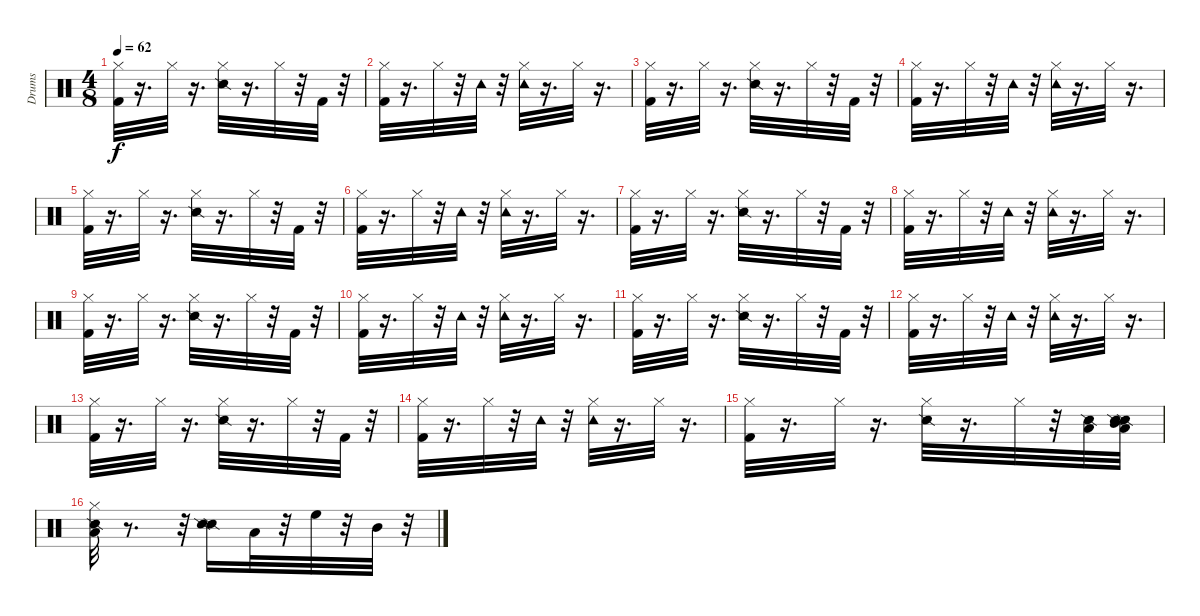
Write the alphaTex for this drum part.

\track ("Drums" "Drums") {instrument percussion}
\staff {score}
\articulation defaults
\ts (4 8)
\tempo 62
\clef neutral
\ks c
("Kick (hit) 2" "Hi-Hat (closed)").32{dy f} r.16{d} "Hi-Hat (closed)".32 r.16{d} ("Snare (side stick) 2" "Hi-Hat (closed)").32 r.16{d} "Hi-Hat (closed)".32 r.32 "Kick (hit) 2".32 r.32 |
("Kick (hit) 2" "Hi-Hat (closed)").32 r.16{d} "Hi-Hat (closed)".32 r.32 "Tambourine (hit)".32 r.32 ("Hi-Hat (closed)" "Tambourine (hit)").32 r.16{d} "Hi-Hat (closed)".32 r.16{d} |
("Kick (hit) 2" "Hi-Hat (closed)").32 r.16{d} "Hi-Hat (closed)".32 r.16{d} ("Snare (side stick) 2" "Hi-Hat (closed)").32 r.16{d} "Hi-Hat (closed)".32 r.32 "Kick (hit) 2".32 r.32 |
("Kick (hit) 2" "Hi-Hat (closed)").32 r.16{d} "Hi-Hat (closed)".32 r.32 "Tambourine (hit)".32 r.32 ("Hi-Hat (closed)" "Tambourine (hit)").32 r.16{d} "Hi-Hat (closed)".32 r.16{d} |
("Kick (hit) 2" "Hi-Hat (closed)").32 r.16{d} "Hi-Hat (closed)".32 r.16{d} ("Snare (side stick) 2" "Hi-Hat (closed)").32 r.16{d} "Hi-Hat (closed)".32 r.32 "Kick (hit) 2".32 r.32 |
("Kick (hit) 2" "Hi-Hat (closed)").32 r.16{d} "Hi-Hat (closed)".32 r.32 "Tambourine (hit)".32 r.32 ("Hi-Hat (closed)" "Tambourine (hit)").32 r.16{d} "Hi-Hat (closed)".32 r.16{d} |
("Kick (hit) 2" "Hi-Hat (closed)").32 r.16{d} "Hi-Hat (closed)".32 r.16{d} ("Snare (side stick) 2" "Hi-Hat (closed)").32 r.16{d} "Hi-Hat (closed)".32 r.32 "Kick (hit) 2".32 r.32 |
("Kick (hit) 2" "Hi-Hat (closed)").32 r.16{d} "Hi-Hat (closed)".32 r.32 "Tambourine (hit)".32 r.32 ("Hi-Hat (closed)" "Tambourine (hit)").32 r.16{d} "Hi-Hat (closed)".32 r.16{d} |
("Kick (hit) 2" "Hi-Hat (closed)").32 r.16{d} "Hi-Hat (closed)".32 r.16{d} ("Snare (side stick) 2" "Hi-Hat (closed)").32 r.16{d} "Hi-Hat (closed)".32 r.32 "Kick (hit) 2".32 r.32 |
("Kick (hit) 2" "Hi-Hat (closed)").32 r.16{d} "Hi-Hat (closed)".32 r.32 "Tambourine (hit)".32 r.32 ("Hi-Hat (closed)" "Tambourine (hit)").32 r.16{d} "Hi-Hat (closed)".32 r.16{d} |
("Kick (hit) 2" "Hi-Hat (closed)").32 r.16{d} "Hi-Hat (closed)".32 r.16{d} ("Snare (side stick) 2" "Hi-Hat (closed)").32 r.16{d} "Hi-Hat (closed)".32 r.32 "Kick (hit) 2".32 r.32 |
("Kick (hit) 2" "Hi-Hat (closed)").32 r.16{d} "Hi-Hat (closed)".32 r.32 "Tambourine (hit)".32 r.32 ("Hi-Hat (closed)" "Tambourine (hit)").32 r.16{d} "Hi-Hat (closed)".32 r.16{d} |
("Kick (hit) 2" "Hi-Hat (closed)").32 r.16{d} "Hi-Hat (closed)".32 r.16{d} ("Snare (side stick) 2" "Hi-Hat (closed)").32 r.16{d} "Hi-Hat (closed)".32 r.32 "Kick (hit) 2".32 r.32 |
("Kick (hit) 2" "Hi-Hat (closed)").32 r.16{d} "Hi-Hat (closed)".32 r.32 "Tambourine (hit)".32 r.32 ("Hi-Hat (closed)" "Tambourine (hit)").32 r.16{d} "Hi-Hat (closed)".32 r.16{d} |
("Kick (hit) 2" "Hi-Hat (closed)").32 r.16{d} "Hi-Hat (closed)".32 r.16{d} ("Snare (side stick) 2" "Hi-Hat (closed)").32 r.16{d} "Hi-Hat (closed)".32 r.32 ("Low Tom (hit)" "Snare (side stick) 2").32 ("Mid Tom (hit)" "Snare (side stick) 2" "Low Tom (hit)" "Snare (side stick) 2").32 |
("Low Floor Tom (hit)" "Snare (side stick) 2" "Hi-Hat (closed)").32 r.8{d} r.32 ("Snare (side stick) 2" "Snare (side stick) 2").16 "Low Tom (hit)".32 r.32 "High Floor Tom (hit)".32 r.32 "Mid Tom (hit)".32 r.32
